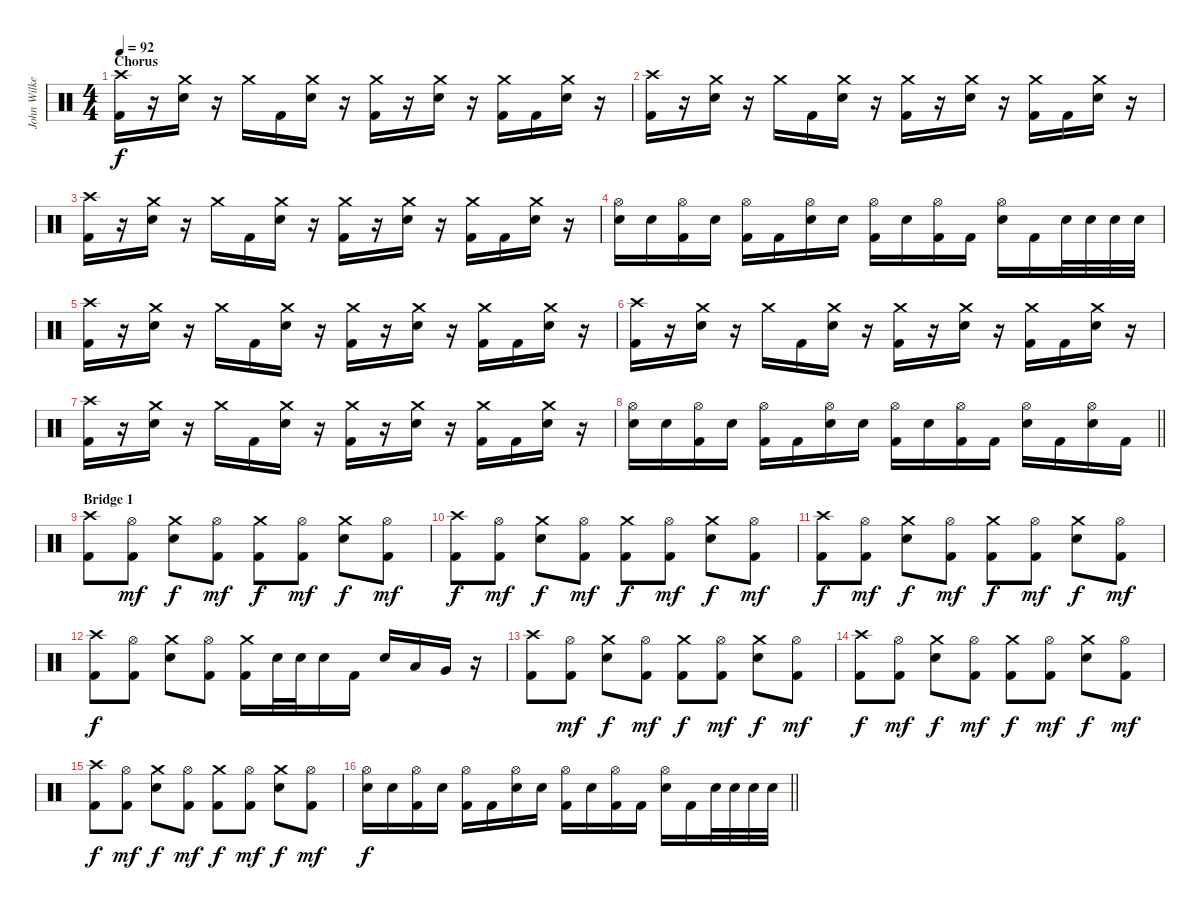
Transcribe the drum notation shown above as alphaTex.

\track ("John Wilkes (Percussion)" "John Wilke") {instrument percussion}
\staff {score}
\articulation defaults
\ts (4 4)
\section ("" "Chorus")
\tempo 92
\clef neutral
\ks c
("Crash high (hit)" "Kick (hit) 2").16{dy f} r.16 ("Crash medium (hit)" "Electric Snare (hit)").16 r.16 "Crash medium (hit)".16 "Kick (hit) 2".16 ("Crash medium (hit)" "Electric Snare (hit)").16 r.16 ("Crash medium (hit)" "Kick (hit) 2").16 r.16 ("Crash medium (hit)" "Electric Snare (hit)").16 r.16 ("Crash medium (hit)" "Kick (hit) 2").16 "Kick (hit) 2".16 ("Crash medium (hit)" "Electric Snare (hit)").16 r.16 |
("Crash high (hit)" "Kick (hit) 2").16 r.16 ("Crash medium (hit)" "Electric Snare (hit)").16 r.16 "Crash medium (hit)".16 "Kick (hit) 2".16 ("Crash medium (hit)" "Electric Snare (hit)").16 r.16 ("Crash medium (hit)" "Kick (hit) 2").16 r.16 ("Crash medium (hit)" "Electric Snare (hit)").16 r.16 ("Crash medium (hit)" "Kick (hit) 2").16 "Kick (hit) 2".16 ("Crash medium (hit)" "Electric Snare (hit)").16 r.16 |
("Crash high (hit)" "Kick (hit) 2").16 r.16 ("Crash medium (hit)" "Electric Snare (hit)").16 r.16 "Crash medium (hit)".16 "Kick (hit) 2".16 ("Crash medium (hit)" "Electric Snare (hit)").16 r.16 ("Crash medium (hit)" "Kick (hit) 2").16 r.16 ("Crash medium (hit)" "Electric Snare (hit)").16 r.16 ("Crash medium (hit)" "Kick (hit) 2").16 "Kick (hit) 2".16 ("Crash medium (hit)" "Electric Snare (hit)").16 r.16 |
("Hi-Hat (open)" "Electric Snare (hit)").16 "Electric Snare (hit)".16 ("Hi-Hat (open)" "Kick (hit) 2").16 "Electric Snare (hit)".16 ("Hi-Hat (open)" "Kick (hit) 2").16 "Kick (hit) 2".16 ("Hi-Hat (open)" "Electric Snare (hit)").16 "Electric Snare (hit)".16 ("Hi-Hat (open)" "Kick (hit) 2").16 "Electric Snare (hit)".16 ("Hi-Hat (open)" "Kick (hit) 2").16 "Kick (hit) 2".16 ("Hi-Hat (open)" "Electric Snare (hit)").16 "Kick (hit) 2".16 "Electric Snare (hit)".32 "Electric Snare (hit)".32 "Electric Snare (hit)".32 "Electric Snare (hit)".32 |
("Crash high (hit)" "Kick (hit) 2").16 r.16 ("Crash medium (hit)" "Electric Snare (hit)").16 r.16 "Crash medium (hit)".16 "Kick (hit) 2".16 ("Crash medium (hit)" "Electric Snare (hit)").16 r.16 ("Crash medium (hit)" "Kick (hit) 2").16 r.16 ("Crash medium (hit)" "Electric Snare (hit)").16 r.16 ("Crash medium (hit)" "Kick (hit) 2").16 "Kick (hit) 2".16 ("Crash medium (hit)" "Electric Snare (hit)").16 r.16 |
("Crash high (hit)" "Kick (hit) 2").16 r.16 ("Crash medium (hit)" "Electric Snare (hit)").16 r.16 "Crash medium (hit)".16 "Kick (hit) 2".16 ("Crash medium (hit)" "Electric Snare (hit)").16 r.16 ("Crash medium (hit)" "Kick (hit) 2").16 r.16 ("Crash medium (hit)" "Electric Snare (hit)").16 r.16 ("Crash medium (hit)" "Kick (hit) 2").16 "Kick (hit) 2".16 ("Crash medium (hit)" "Electric Snare (hit)").16 r.16 |
("Crash high (hit)" "Kick (hit) 2").16 r.16 ("Crash medium (hit)" "Electric Snare (hit)").16 r.16 "Crash medium (hit)".16 "Kick (hit) 2".16 ("Crash medium (hit)" "Electric Snare (hit)").16 r.16 ("Crash medium (hit)" "Kick (hit) 2").16 r.16 ("Crash medium (hit)" "Electric Snare (hit)").16 r.16 ("Crash medium (hit)" "Kick (hit) 2").16 "Kick (hit) 2".16 ("Crash medium (hit)" "Electric Snare (hit)").16 r.16 |
\barLineRight lightlight
("Hi-Hat (open)" "Electric Snare (hit)").16 "Electric Snare (hit)".16 ("Hi-Hat (open)" "Kick (hit) 2").16 "Electric Snare (hit)".16 ("Hi-Hat (open)" "Kick (hit) 2").16 "Kick (hit) 2".16 ("Hi-Hat (open)" "Electric Snare (hit)").16 "Electric Snare (hit)".16 ("Hi-Hat (open)" "Kick (hit) 2").16 "Electric Snare (hit)".16 ("Hi-Hat (open)" "Kick (hit) 2").16 "Kick (hit) 2".16 ("Hi-Hat (open)" "Electric Snare (hit)").16 "Kick (hit) 2".16 ("Hi-Hat (open)" "Electric Snare (hit)").16 "Kick (hit) 2".16 |
\section ("" "Bridge 1")
("Crash high (hit)" "Kick (hit) 2").8 ("Hi-Hat (open)" "Kick (hit) 2").8{dy mf} ("Crash medium (hit)" "Electric Snare (hit)").8{dy f} ("Hi-Hat (open)" "Kick (hit) 2").8{dy mf} ("Crash medium (hit)" "Kick (hit) 2").8{dy f} ("Hi-Hat (open)" "Kick (hit) 2").8{dy mf} ("Crash medium (hit)" "Electric Snare (hit)").8{dy f} ("Hi-Hat (open)" "Kick (hit) 2").8{dy mf} |
("Crash high (hit)" "Kick (hit) 2").8{dy f} ("Hi-Hat (open)" "Kick (hit) 2").8{dy mf} ("Crash medium (hit)" "Electric Snare (hit)").8{dy f} ("Hi-Hat (open)" "Kick (hit) 2").8{dy mf} ("Crash medium (hit)" "Kick (hit) 2").8{dy f} ("Hi-Hat (open)" "Kick (hit) 2").8{dy mf} ("Crash medium (hit)" "Electric Snare (hit)").8{dy f} ("Hi-Hat (open)" "Kick (hit) 2").8{dy mf} |
("Crash high (hit)" "Kick (hit) 2").8{dy f} ("Hi-Hat (open)" "Kick (hit) 2").8{dy mf} ("Crash medium (hit)" "Electric Snare (hit)").8{dy f} ("Hi-Hat (open)" "Kick (hit) 2").8{dy mf} ("Crash medium (hit)" "Kick (hit) 2").8{dy f} ("Hi-Hat (open)" "Kick (hit) 2").8{dy mf} ("Crash medium (hit)" "Electric Snare (hit)").8{dy f} ("Hi-Hat (open)" "Kick (hit) 2").8{dy mf} |
("Crash high (hit)" "Kick (hit) 2").8{dy f} ("Hi-Hat (open)" "Kick (hit) 2").8 ("Crash medium (hit)" "Electric Snare (hit)").8 ("Hi-Hat (open)" "Kick (hit) 2").8 ("Crash medium (hit)" "Kick (hit) 2").16 "Electric Snare (hit)".32 "Electric Snare (hit)".32 "Electric Snare (hit)".16 "Kick (hit) 2".16 "Electric Snare (hit)".16 "Low Tom (hit)".16 "Very Low Tom (hit)".16 r.16 |
("Crash high (hit)" "Kick (hit) 2").8 ("Hi-Hat (open)" "Kick (hit) 2").8{dy mf} ("Crash medium (hit)" "Electric Snare (hit)").8{dy f} ("Hi-Hat (open)" "Kick (hit) 2").8{dy mf} ("Crash medium (hit)" "Kick (hit) 2").8{dy f} ("Hi-Hat (open)" "Kick (hit) 2").8{dy mf} ("Crash medium (hit)" "Electric Snare (hit)").8{dy f} ("Hi-Hat (open)" "Kick (hit) 2").8{dy mf} |
("Crash high (hit)" "Kick (hit) 2").8{dy f} ("Hi-Hat (open)" "Kick (hit) 2").8{dy mf} ("Crash medium (hit)" "Electric Snare (hit)").8{dy f} ("Hi-Hat (open)" "Kick (hit) 2").8{dy mf} ("Crash medium (hit)" "Kick (hit) 2").8{dy f} ("Hi-Hat (open)" "Kick (hit) 2").8{dy mf} ("Crash medium (hit)" "Electric Snare (hit)").8{dy f} ("Hi-Hat (open)" "Kick (hit) 2").8{dy mf} |
("Crash high (hit)" "Kick (hit) 2").8{dy f} ("Hi-Hat (open)" "Kick (hit) 2").8{dy mf} ("Crash medium (hit)" "Electric Snare (hit)").8{dy f} ("Hi-Hat (open)" "Kick (hit) 2").8{dy mf} ("Crash medium (hit)" "Kick (hit) 2").8{dy f} ("Hi-Hat (open)" "Kick (hit) 2").8{dy mf} ("Crash medium (hit)" "Electric Snare (hit)").8{dy f} ("Hi-Hat (open)" "Kick (hit) 2").8{dy mf} |
\barLineRight lightlight
("Hi-Hat (open)" "Electric Snare (hit)").16{dy f} "Electric Snare (hit)".16 ("Hi-Hat (open)" "Kick (hit) 2").16 "Electric Snare (hit)".16 ("Hi-Hat (open)" "Kick (hit) 2").16 "Kick (hit) 2".16 ("Hi-Hat (open)" "Electric Snare (hit)").16 "Electric Snare (hit)".16 ("Hi-Hat (open)" "Kick (hit) 2").16 "Electric Snare (hit)".16 ("Hi-Hat (open)" "Kick (hit) 2").16 "Kick (hit) 2".16 ("Hi-Hat (open)" "Electric Snare (hit)").16 "Kick (hit) 2".16 "Electric Snare (hit)".32 "Electric Snare (hit)".32 "Electric Snare (hit)".32 "Electric Snare (hit)".32
